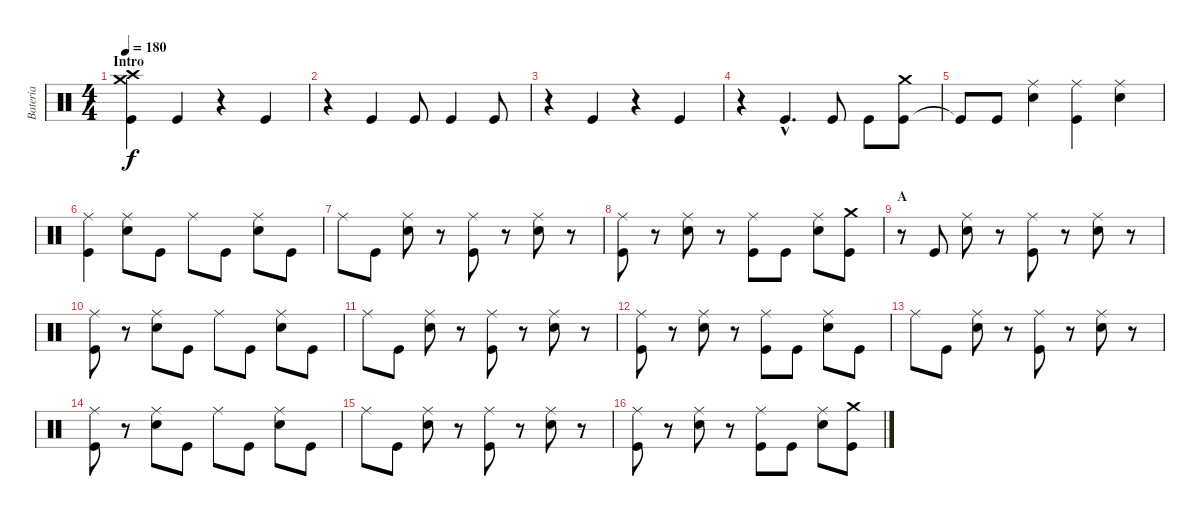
\track ("Bateria" "Bateria") {instrument percussion}
\staff {score}
\articulation defaults
\ts (4 4)
\section ("" "Intro")
\tempo 180
\clef neutral
\ks c
("Kick (hit)" "Crash medium (hit)" "Crash high (hit)").4{dy f} "Kick (hit)".4 r.4 "Kick (hit)".4 |
r.4 "Kick (hit)".4 "Kick (hit)".8 "Kick (hit)".4 "Kick (hit)".8 |
r.4 "Kick (hit)".4 r.4 "Kick (hit)".4 |
r.4 "Kick (hit)"{hac}.4{d} "Kick (hit)".8 "Kick (hit)".8 ("Kick (hit)" "Crash medium (hit)").8 |
"Kick (hit)"{t}.8 "Kick (hit)".8 ("Ride (middle)" "Electric Snare (hit)").4 ("Ride (middle)" "Kick (hit)").4 ("Ride (middle)" "Electric Snare (hit)").4 |
("Ride (middle)" "Kick (hit)").4 ("Ride (middle)" "Electric Snare (hit)").8 "Kick (hit)".8 "Ride (middle)".8 "Kick (hit)".8 ("Ride (middle)" "Electric Snare (hit)").8 "Kick (hit)".8 |
"Ride (middle)".8 "Kick (hit)".8 ("Ride (middle)" "Electric Snare (hit)").8 r.8 ("Ride (middle)" "Kick (hit)").8 r.8 ("Ride (middle)" "Electric Snare (hit)").8 r.8 |
("Ride (middle)" "Kick (hit)").8 r.8 ("Ride (middle)" "Electric Snare (hit)").8 r.8 ("Ride (middle)" "Kick (hit)").8 "Kick (hit)".8 ("Ride (middle)" "Electric Snare (hit)").8 ("Kick (hit)" "Crash medium (hit)").8 |
\section ("" "A")
r.8 "Kick (hit)".8 ("Ride (middle)" "Electric Snare (hit)").8 r.8 ("Ride (middle)" "Kick (hit)").8 r.8 ("Ride (middle)" "Electric Snare (hit)").8 r.8 |
("Ride (middle)" "Kick (hit)").8 r.8 ("Ride (middle)" "Electric Snare (hit)").8 "Kick (hit)".8 "Ride (middle)".8 "Kick (hit)".8 ("Ride (middle)" "Electric Snare (hit)").8 "Kick (hit)".8 |
"Ride (middle)".8 "Kick (hit)".8 ("Ride (middle)" "Electric Snare (hit)").8 r.8 ("Ride (middle)" "Kick (hit)").8 r.8 ("Ride (middle)" "Electric Snare (hit)").8 r.8 |
("Ride (middle)" "Kick (hit)").8 r.8 ("Ride (middle)" "Electric Snare (hit)").8 r.8 ("Ride (middle)" "Kick (hit)").8 "Kick (hit)".8 ("Ride (middle)" "Electric Snare (hit)").8 "Kick (hit)".8 |
"Ride (middle)".8 "Kick (hit)".8 ("Ride (middle)" "Electric Snare (hit)").8 r.8 ("Ride (middle)" "Kick (hit)").8 r.8 ("Ride (middle)" "Electric Snare (hit)").8 r.8 |
("Ride (middle)" "Kick (hit)").8 r.8 ("Ride (middle)" "Electric Snare (hit)").8 "Kick (hit)".8 "Ride (middle)".8 "Kick (hit)".8 ("Ride (middle)" "Electric Snare (hit)").8 "Kick (hit)".8 |
"Ride (middle)".8 "Kick (hit)".8 ("Ride (middle)" "Electric Snare (hit)").8 r.8 ("Ride (middle)" "Kick (hit)").8 r.8 ("Ride (middle)" "Electric Snare (hit)").8 r.8 |
("Ride (middle)" "Kick (hit)").8 r.8 ("Ride (middle)" "Electric Snare (hit)").8 r.8 ("Ride (middle)" "Kick (hit)").8 "Kick (hit)".8 ("Ride (middle)" "Electric Snare (hit)").8 ("Kick (hit)" "Crash medium (hit)").8
